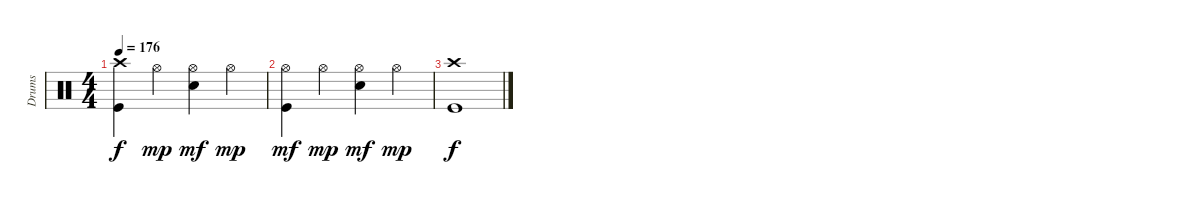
\track ("Drums" "Drums") {instrument percussion}
\staff {score}
\articulation defaults
\ts (4 4)
\tempo 176
\clef neutral
\ks c
("Crash high (hit)" "Kick (hit)").4{dy f} "Hi-Hat (open)".4{dy mp} ("Hi-Hat (open)" "Electric Snare (hit)").4{dy mf} "Hi-Hat (open)".4{dy mp} |
("Hi-Hat (open)" "Kick (hit)").4{dy mf} "Hi-Hat (open)".4{dy mp} ("Hi-Hat (open)" "Electric Snare (hit)").4{dy mf} "Hi-Hat (open)".4{dy mp} |
("Crash high (hit)" "Kick (hit)").1{dy f}
